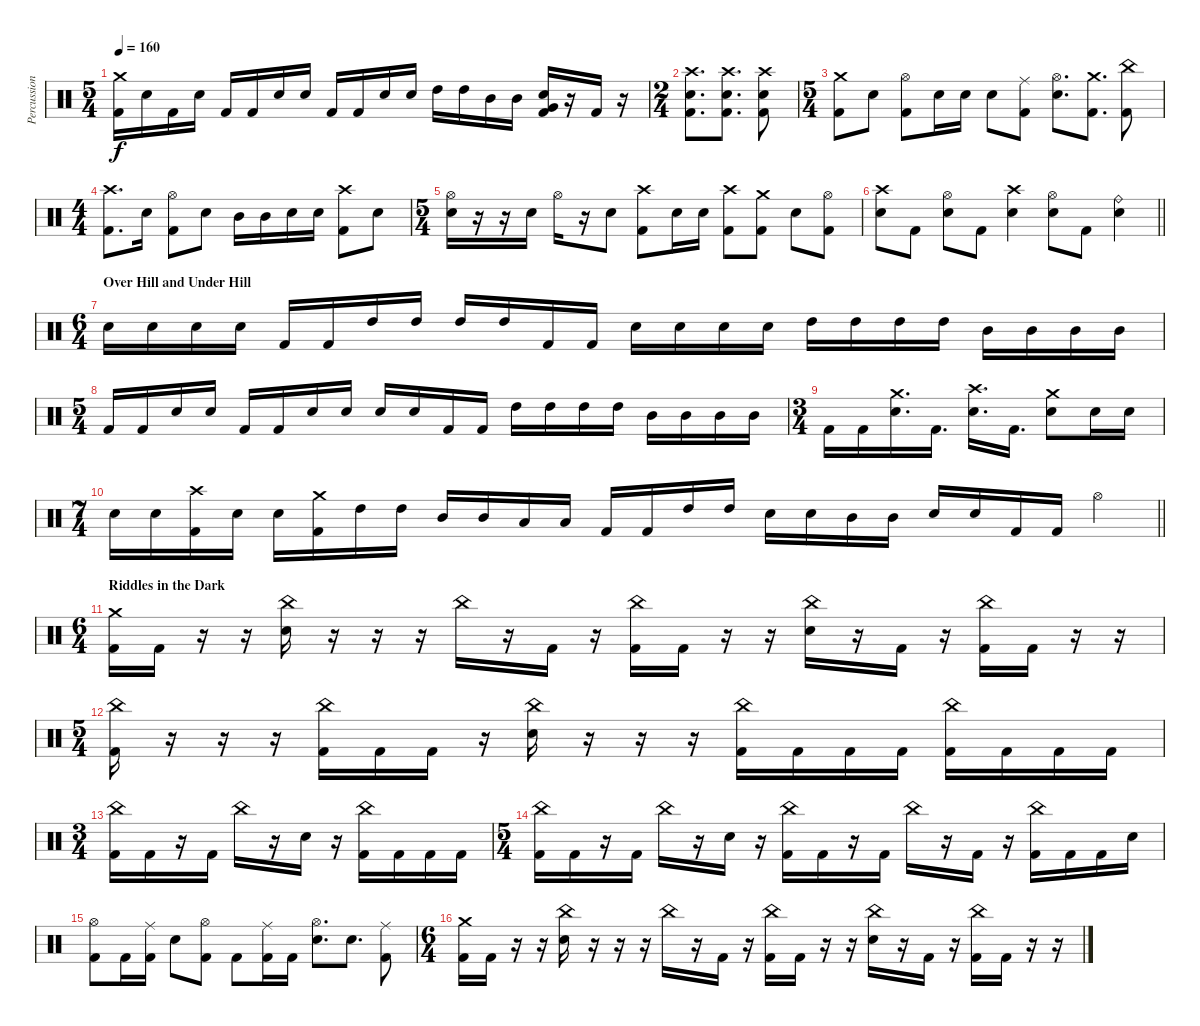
\track ("Percussion" "Percussion") {instrument percussion}
\staff {score}
\articulation defaults
\ts (5 4)
\tempo 160
\clef neutral
\ks c
("Crash medium (hit)" "Kick (hit) 2").16{dy f} "Electric Snare (hit)".16 "Kick (hit) 2".16 "Electric Snare (hit)".16 "Kick (hit) 2".16 "Kick (hit) 2".16 "Electric Snare (hit)".16 "Electric Snare (hit)".16 "Kick (hit) 2".16 "Kick (hit) 2".16 "Electric Snare (hit)".16 "Electric Snare (hit)".16 "High Tom (hit)".16 "High Tom (hit)".16 "Mid Tom (hit)".16 "Mid Tom (hit)".16 ("Very Low Tom (hit)" "Electric Snare (hit)" "Kick (hit) 2").16 r.16 "Kick (hit) 2".16 r.16 |
\ts (2 4)
("Crash high (hit)" "Electric Snare (hit)" "Kick (hit) 2").8{d} ("Crash high (hit)" "Electric Snare (hit)" "Kick (hit) 2").8{d} ("Crash high (hit)" "Electric Snare (hit)" "Kick (hit) 2").8 |
\ts (5 4)
("Kick (hit) 2" "Crash medium (hit)").8 "Electric Snare (hit)".8 ("Kick (hit) 2" "Hi-Hat (open)").8 "Electric Snare (hit)".16 "Electric Snare (hit)".16 "Electric Snare (hit)".8 ("Kick (hit) 2" "Ride (middle)").8 ("Hi-Hat (open)" "Electric Snare (hit)").8{d} ("Crash medium (hit)" "Kick (hit) 2").8{d} ("China (hit)" "Kick (hit) 2").8 |
\ts (4 4)
("Kick (hit) 2" "Crash high (hit)").8{d} "Electric Snare (hit)".16 ("Kick (hit) 2" "Hi-Hat (open)").8 "Electric Snare (hit)".8 "Mid Tom (hit)".16 "Mid Tom (hit)".16 "Electric Snare (hit)".16 "Electric Snare (hit)".16 ("Kick (hit) 2" "Crash high (hit)").8 "Electric Snare (hit)".8 |
\ts (5 4)
("Electric Snare (hit)" "Hi-Hat (open)").16 r.16 r.16 "Electric Snare (hit)".16 "Hi-Hat (open)".16 r.16 "Electric Snare (hit)".8 ("Kick (hit) 2" "Crash high (hit)").8 "Electric Snare (hit)".16 "Electric Snare (hit)".16 ("Kick (hit) 2" "Crash high (hit)").8 ("Kick (hit) 2" "Crash medium (hit)").8 "Electric Snare (hit)".8 ("Kick (hit) 2" "Hi-Hat (open)").8 |
\barLineRight lightlight
("Electric Snare (hit)" "Crash high (hit)").8 "Kick (hit) 2".8 ("Electric Snare (hit)" "Hi-Hat (open)").8 "Kick (hit) 2".8 ("Crash high (hit)" "Electric Snare (hit)").4 ("Electric Snare (hit)" "Hi-Hat (open)").8 "Kick (hit) 2".8 ("Electric Snare (hit)" "Ride (bell)").4 |
\ts (6 4)
\section ("" "Over Hill and Under Hill")
"Electric Snare (hit)".16 "Electric Snare (hit)".16 "Electric Snare (hit)".16 "Electric Snare (hit)".16 "Kick (hit) 2".16 "Kick (hit) 2".16 "High Tom (hit)".16 "High Tom (hit)".16 "High Tom (hit)".16 "High Tom (hit)".16 "Kick (hit) 2".16 "Kick (hit) 2".16 "Electric Snare (hit)".16 "Electric Snare (hit)".16 "Electric Snare (hit)".16 "Electric Snare (hit)".16 "High Tom (hit)".16 "High Tom (hit)".16 "High Tom (hit)".16 "High Tom (hit)".16 "Mid Tom (hit)".16 "Mid Tom (hit)".16 "Mid Tom (hit)".16 "Mid Tom (hit)".16 |
\ts (5 4)
"Kick (hit) 2".16 "Kick (hit) 2".16 "Electric Snare (hit)".16 "Electric Snare (hit)".16 "Kick (hit) 2".16 "Kick (hit) 2".16 "Electric Snare (hit)".16 "Electric Snare (hit)".16 "Electric Snare (hit)".16 "Electric Snare (hit)".16 "Kick (hit) 2".16 "Kick (hit) 2".16 "High Tom (hit)".16 "High Tom (hit)".16 "High Tom (hit)".16 "High Tom (hit)".16 "Mid Tom (hit)".16 "Mid Tom (hit)".16 "Mid Tom (hit)".16 "Mid Tom (hit)".16 |
\ts (3 4)
"Kick (hit) 2".16 "Kick (hit) 2".16 ("Crash medium (hit)" "Electric Snare (hit)").16{d} "Kick (hit) 2".16{d} ("Crash high (hit)" "Electric Snare (hit)").16{d} "Kick (hit) 2".16{d} ("Crash medium (hit)" "Electric Snare (hit)").8 "Electric Snare (hit)".16 "Electric Snare (hit)".16 |
\ts (7 4)
\barLineRight lightlight "Electric Snare (hit)".16 "Electric Snare (hit)".16
("Crash high (hit)" "Kick (hit) 2").16 "Electric Snare (hit)".16 "Electric Snare (hit)".16 ("Crash medium (hit)" "Kick (hit) 2").16 "High Tom (hit)".16 "High Tom (hit)".16 "Mid Tom (hit)".16 "Mid Tom (hit)".16 "Low Tom (hit)".16 "Low Tom (hit)".16 "Kick (hit) 2".16 "Kick (hit) 2".16 "High Tom (hit)".16 "High Tom (hit)".16 "Electric Snare (hit)".16 "Electric Snare (hit)".16 "Mid Tom (hit)".16 "Mid Tom (hit)".16 "Electric Snare (hit)".16 "Electric Snare (hit)".16 "Kick (hit) 2".16 "Kick (hit) 2".16 "Hi-Hat (open)".4 |
\ts (6 4)
\section ("" "Riddles in the Dark")
("Crash medium (hit)" "Kick (hit) 2").16 "Kick (hit) 2".16 r.16 r.16 ("China (hit)" "Electric Snare (hit)").16 r.16 r.16 r.16 "China (hit)".16 r.16 "Kick (hit) 2".16 r.16 ("China (hit)" "Kick (hit) 2").16 "Kick (hit) 2".16 r.16 r.16 ("China (hit)" "Electric Snare (hit)").16 r.16 "Kick (hit) 2".16 r.16 ("China (hit)" "Kick (hit) 2").16 "Kick (hit) 2".16 r.16 r.16 |
\ts (5 4)
("China (hit)" "Kick (hit) 2").16 r.16 r.16 r.16 ("China (hit)" "Kick (hit) 2").16 "Kick (hit) 2".16 "Kick (hit) 2".16 r.16 ("China (hit)" "Electric Snare (hit)").16 r.16 r.16 r.16 ("China (hit)" "Kick (hit) 2").16 "Kick (hit) 2".16 "Kick (hit) 2".16 "Kick (hit) 2".16 ("China (hit)" "Kick (hit) 2").16 "Kick (hit) 2".16 "Kick (hit) 2".16 "Kick (hit) 2".16 |
\ts (3 4)
("China (hit)" "Kick (hit) 2").16 "Kick (hit) 2".16 r.16 "Kick (hit) 2".16 "China (hit)".16 r.16 "Electric Snare (hit)".16 r.16 ("China (hit)" "Kick (hit) 2").16 "Kick (hit) 2".16 "Kick (hit) 2".16 "Kick (hit) 2".16 |
\ts (5 4)
("China (hit)" "Kick (hit) 2").16 "Kick (hit) 2".16 r.16 "Kick (hit) 2".16 "China (hit)".16 r.16 "Electric Snare (hit)".16 r.16 ("China (hit)" "Kick (hit) 2").16 "Kick (hit) 2".16 r.16 "Kick (hit) 2".16 "China (hit)".16 r.16 "Kick (hit) 2".16 r.16 ("China (hit)" "Kick (hit) 2").16 "Kick (hit) 2".16 "Kick (hit) 2".16 "Electric Snare (hit)".16 |
("Hi-Hat (open)" "Kick (hit) 2").8 "Kick (hit) 2".16 ("Ride (middle)" "Kick (hit) 2").16 "Electric Snare (hit)".8 ("Hi-Hat (open)" "Kick (hit) 2").8 "Kick (hit) 2".8 ("Ride (middle)" "Kick (hit) 2").16 "Kick (hit) 2".16 ("Hi-Hat (open)" "Electric Snare (hit)").8{d} "Electric Snare (hit)".8{d} ("Ride (middle)" "Kick (hit) 2").8 |
\ts (6 4)
("Crash medium (hit)" "Kick (hit) 2").16 "Kick (hit) 2".16 r.16 r.16 ("China (hit)" "Electric Snare (hit)").16 r.16 r.16 r.16 "China (hit)".16 r.16 "Kick (hit) 2".16 r.16 ("China (hit)" "Kick (hit) 2").16 "Kick (hit) 2".16 r.16 r.16 ("China (hit)" "Electric Snare (hit)").16 r.16 "Kick (hit) 2".16 r.16 ("China (hit)" "Kick (hit) 2").16 "Kick (hit) 2".16 r.16 r.16
